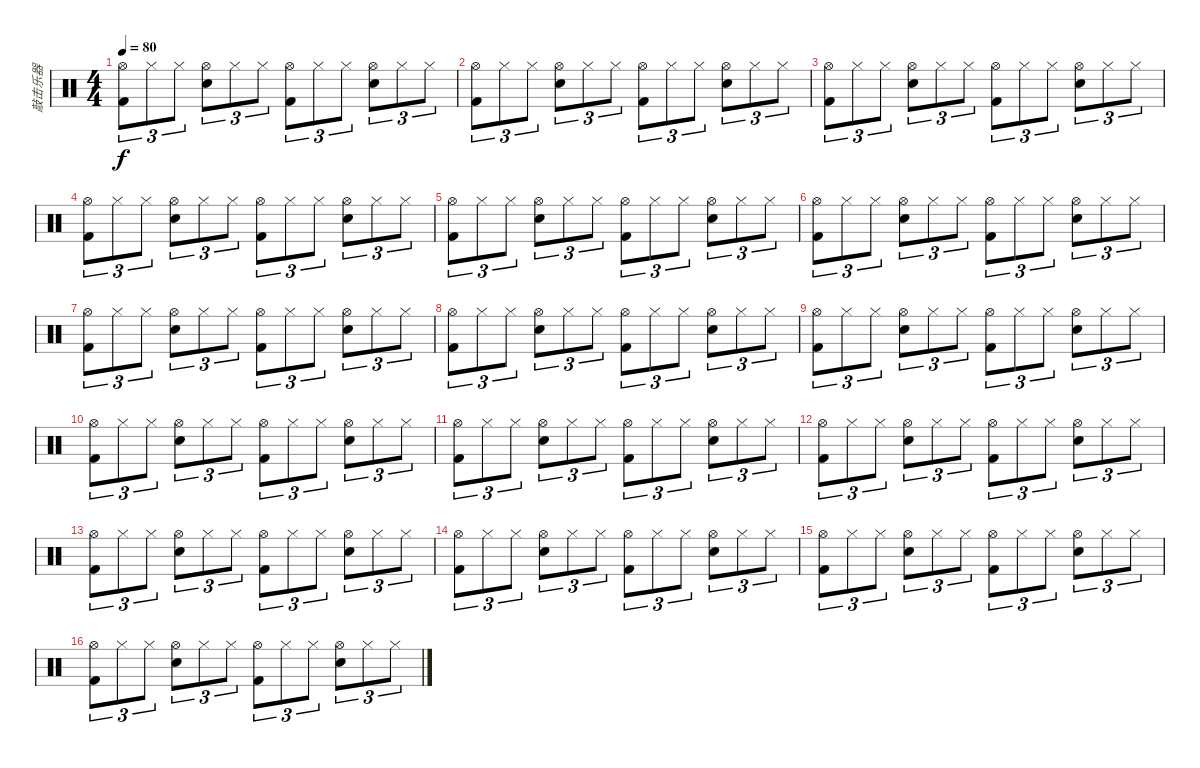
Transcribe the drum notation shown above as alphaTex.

\track ("敲击乐器" "敲击乐器") {instrument percussion}
\staff {score}
\articulation defaults
\ts (4 4)
\tempo 80
\clef neutral
\ks c
("Hi-Hat (open)" "Kick (hit) 2").8{tu (3 2) dy f} "Hi-Hat (closed)".8{tu (3 2)} "Hi-Hat (closed)".8{tu (3 2)} ("Hi-Hat (open)" "Electric Snare (hit)").8{tu (3 2)} "Hi-Hat (closed)".8{tu (3 2)} "Hi-Hat (closed)".8{tu (3 2)} ("Hi-Hat (open)" "Kick (hit) 2").8{tu (3 2)} "Hi-Hat (closed)".8{tu (3 2)} "Hi-Hat (closed)".8{tu (3 2)} ("Hi-Hat (open)" "Electric Snare (hit)").8{tu (3 2)} "Hi-Hat (closed)".8{tu (3 2)} "Hi-Hat (closed)".8{tu (3 2)} |
("Hi-Hat (open)" "Kick (hit) 2").8{tu (3 2)} "Hi-Hat (closed)".8{tu (3 2)} "Hi-Hat (closed)".8{tu (3 2)} ("Hi-Hat (open)" "Electric Snare (hit)").8{tu (3 2)} "Hi-Hat (closed)".8{tu (3 2)} "Hi-Hat (closed)".8{tu (3 2)} ("Hi-Hat (open)" "Kick (hit) 2").8{tu (3 2)} "Hi-Hat (closed)".8{tu (3 2)} "Hi-Hat (closed)".8{tu (3 2)} ("Hi-Hat (open)" "Electric Snare (hit)").8{tu (3 2)} "Hi-Hat (closed)".8{tu (3 2)} "Hi-Hat (closed)".8{tu (3 2)} |
("Hi-Hat (open)" "Kick (hit) 2").8{tu (3 2)} "Hi-Hat (closed)".8{tu (3 2)} "Hi-Hat (closed)".8{tu (3 2)} ("Hi-Hat (open)" "Electric Snare (hit)").8{tu (3 2)} "Hi-Hat (closed)".8{tu (3 2)} "Hi-Hat (closed)".8{tu (3 2)} ("Hi-Hat (open)" "Kick (hit) 2").8{tu (3 2)} "Hi-Hat (closed)".8{tu (3 2)} "Hi-Hat (closed)".8{tu (3 2)} ("Hi-Hat (open)" "Electric Snare (hit)").8{tu (3 2)} "Hi-Hat (closed)".8{tu (3 2)} "Hi-Hat (closed)".8{tu (3 2)} |
("Hi-Hat (open)" "Kick (hit) 2").8{tu (3 2)} "Hi-Hat (closed)".8{tu (3 2)} "Hi-Hat (closed)".8{tu (3 2)} ("Hi-Hat (open)" "Electric Snare (hit)").8{tu (3 2)} "Hi-Hat (closed)".8{tu (3 2)} "Hi-Hat (closed)".8{tu (3 2)} ("Hi-Hat (open)" "Kick (hit) 2").8{tu (3 2)} "Hi-Hat (closed)".8{tu (3 2)} "Hi-Hat (closed)".8{tu (3 2)} ("Hi-Hat (open)" "Electric Snare (hit)").8{tu (3 2)} "Hi-Hat (closed)".8{tu (3 2)} "Hi-Hat (closed)".8{tu (3 2)} |
("Hi-Hat (open)" "Kick (hit) 2").8{tu (3 2)} "Hi-Hat (closed)".8{tu (3 2)} "Hi-Hat (closed)".8{tu (3 2)} ("Hi-Hat (open)" "Electric Snare (hit)").8{tu (3 2)} "Hi-Hat (closed)".8{tu (3 2)} "Hi-Hat (closed)".8{tu (3 2)} ("Hi-Hat (open)" "Kick (hit) 2").8{tu (3 2)} "Hi-Hat (closed)".8{tu (3 2)} "Hi-Hat (closed)".8{tu (3 2)} ("Hi-Hat (open)" "Electric Snare (hit)").8{tu (3 2)} "Hi-Hat (closed)".8{tu (3 2)} "Hi-Hat (closed)".8{tu (3 2)} |
("Hi-Hat (open)" "Kick (hit) 2").8{tu (3 2)} "Hi-Hat (closed)".8{tu (3 2)} "Hi-Hat (closed)".8{tu (3 2)} ("Hi-Hat (open)" "Electric Snare (hit)").8{tu (3 2)} "Hi-Hat (closed)".8{tu (3 2)} "Hi-Hat (closed)".8{tu (3 2)} ("Hi-Hat (open)" "Kick (hit) 2").8{tu (3 2)} "Hi-Hat (closed)".8{tu (3 2)} "Hi-Hat (closed)".8{tu (3 2)} ("Hi-Hat (open)" "Electric Snare (hit)").8{tu (3 2)} "Hi-Hat (closed)".8{tu (3 2)} "Hi-Hat (closed)".8{tu (3 2)} |
("Hi-Hat (open)" "Kick (hit) 2").8{tu (3 2)} "Hi-Hat (closed)".8{tu (3 2)} "Hi-Hat (closed)".8{tu (3 2)} ("Hi-Hat (open)" "Electric Snare (hit)").8{tu (3 2)} "Hi-Hat (closed)".8{tu (3 2)} "Hi-Hat (closed)".8{tu (3 2)} ("Hi-Hat (open)" "Kick (hit) 2").8{tu (3 2)} "Hi-Hat (closed)".8{tu (3 2)} "Hi-Hat (closed)".8{tu (3 2)} ("Hi-Hat (open)" "Electric Snare (hit)").8{tu (3 2)} "Hi-Hat (closed)".8{tu (3 2)} "Hi-Hat (closed)".8{tu (3 2)} |
("Hi-Hat (open)" "Kick (hit) 2").8{tu (3 2)} "Hi-Hat (closed)".8{tu (3 2)} "Hi-Hat (closed)".8{tu (3 2)} ("Hi-Hat (open)" "Electric Snare (hit)").8{tu (3 2)} "Hi-Hat (closed)".8{tu (3 2)} "Hi-Hat (closed)".8{tu (3 2)} ("Hi-Hat (open)" "Kick (hit) 2").8{tu (3 2)} "Hi-Hat (closed)".8{tu (3 2)} "Hi-Hat (closed)".8{tu (3 2)} ("Hi-Hat (open)" "Electric Snare (hit)").8{tu (3 2)} "Hi-Hat (closed)".8{tu (3 2)} "Hi-Hat (closed)".8{tu (3 2)} |
("Hi-Hat (open)" "Kick (hit) 2").8{tu (3 2)} "Hi-Hat (closed)".8{tu (3 2)} "Hi-Hat (closed)".8{tu (3 2)} ("Hi-Hat (open)" "Electric Snare (hit)").8{tu (3 2)} "Hi-Hat (closed)".8{tu (3 2)} "Hi-Hat (closed)".8{tu (3 2)} ("Hi-Hat (open)" "Kick (hit) 2").8{tu (3 2)} "Hi-Hat (closed)".8{tu (3 2)} "Hi-Hat (closed)".8{tu (3 2)} ("Hi-Hat (open)" "Electric Snare (hit)").8{tu (3 2)} "Hi-Hat (closed)".8{tu (3 2)} "Hi-Hat (closed)".8{tu (3 2)} |
("Hi-Hat (open)" "Kick (hit) 2").8{tu (3 2)} "Hi-Hat (closed)".8{tu (3 2)} "Hi-Hat (closed)".8{tu (3 2)} ("Hi-Hat (open)" "Electric Snare (hit)").8{tu (3 2)} "Hi-Hat (closed)".8{tu (3 2)} "Hi-Hat (closed)".8{tu (3 2)} ("Hi-Hat (open)" "Kick (hit) 2").8{tu (3 2)} "Hi-Hat (closed)".8{tu (3 2)} "Hi-Hat (closed)".8{tu (3 2)} ("Hi-Hat (open)" "Electric Snare (hit)").8{tu (3 2)} "Hi-Hat (closed)".8{tu (3 2)} "Hi-Hat (closed)".8{tu (3 2)} |
("Hi-Hat (open)" "Kick (hit) 2").8{tu (3 2)} "Hi-Hat (closed)".8{tu (3 2)} "Hi-Hat (closed)".8{tu (3 2)} ("Hi-Hat (open)" "Electric Snare (hit)").8{tu (3 2)} "Hi-Hat (closed)".8{tu (3 2)} "Hi-Hat (closed)".8{tu (3 2)} ("Hi-Hat (open)" "Kick (hit) 2").8{tu (3 2)} "Hi-Hat (closed)".8{tu (3 2)} "Hi-Hat (closed)".8{tu (3 2)} ("Hi-Hat (open)" "Electric Snare (hit)").8{tu (3 2)} "Hi-Hat (closed)".8{tu (3 2)} "Hi-Hat (closed)".8{tu (3 2)} |
("Hi-Hat (open)" "Kick (hit) 2").8{tu (3 2)} "Hi-Hat (closed)".8{tu (3 2)} "Hi-Hat (closed)".8{tu (3 2)} ("Hi-Hat (open)" "Electric Snare (hit)").8{tu (3 2)} "Hi-Hat (closed)".8{tu (3 2)} "Hi-Hat (closed)".8{tu (3 2)} ("Hi-Hat (open)" "Kick (hit) 2").8{tu (3 2)} "Hi-Hat (closed)".8{tu (3 2)} "Hi-Hat (closed)".8{tu (3 2)} ("Hi-Hat (open)" "Electric Snare (hit)").8{tu (3 2)} "Hi-Hat (closed)".8{tu (3 2)} "Hi-Hat (closed)".8{tu (3 2)} |
("Hi-Hat (open)" "Kick (hit) 2").8{tu (3 2)} "Hi-Hat (closed)".8{tu (3 2)} "Hi-Hat (closed)".8{tu (3 2)} ("Hi-Hat (open)" "Electric Snare (hit)").8{tu (3 2)} "Hi-Hat (closed)".8{tu (3 2)} "Hi-Hat (closed)".8{tu (3 2)} ("Hi-Hat (open)" "Kick (hit) 2").8{tu (3 2)} "Hi-Hat (closed)".8{tu (3 2)} "Hi-Hat (closed)".8{tu (3 2)} ("Hi-Hat (open)" "Electric Snare (hit)").8{tu (3 2)} "Hi-Hat (closed)".8{tu (3 2)} "Hi-Hat (closed)".8{tu (3 2)} |
("Hi-Hat (open)" "Kick (hit) 2").8{tu (3 2)} "Hi-Hat (closed)".8{tu (3 2)} "Hi-Hat (closed)".8{tu (3 2)} ("Hi-Hat (open)" "Electric Snare (hit)").8{tu (3 2)} "Hi-Hat (closed)".8{tu (3 2)} "Hi-Hat (closed)".8{tu (3 2)} ("Hi-Hat (open)" "Kick (hit) 2").8{tu (3 2)} "Hi-Hat (closed)".8{tu (3 2)} "Hi-Hat (closed)".8{tu (3 2)} ("Hi-Hat (open)" "Electric Snare (hit)").8{tu (3 2)} "Hi-Hat (closed)".8{tu (3 2)} "Hi-Hat (closed)".8{tu (3 2)} |
("Hi-Hat (open)" "Kick (hit) 2").8{tu (3 2)} "Hi-Hat (closed)".8{tu (3 2)} "Hi-Hat (closed)".8{tu (3 2)} ("Hi-Hat (open)" "Electric Snare (hit)").8{tu (3 2)} "Hi-Hat (closed)".8{tu (3 2)} "Hi-Hat (closed)".8{tu (3 2)} ("Hi-Hat (open)" "Kick (hit) 2").8{tu (3 2)} "Hi-Hat (closed)".8{tu (3 2)} "Hi-Hat (closed)".8{tu (3 2)} ("Hi-Hat (open)" "Electric Snare (hit)").8{tu (3 2)} "Hi-Hat (closed)".8{tu (3 2)} "Hi-Hat (closed)".8{tu (3 2)} |
("Hi-Hat (open)" "Kick (hit) 2").8{tu (3 2)} "Hi-Hat (closed)".8{tu (3 2)} "Hi-Hat (closed)".8{tu (3 2)} ("Hi-Hat (open)" "Electric Snare (hit)").8{tu (3 2)} "Hi-Hat (closed)".8{tu (3 2)} "Hi-Hat (closed)".8{tu (3 2)} ("Hi-Hat (open)" "Kick (hit) 2").8{tu (3 2)} "Hi-Hat (closed)".8{tu (3 2)} "Hi-Hat (closed)".8{tu (3 2)} ("Hi-Hat (open)" "Electric Snare (hit)").8{tu (3 2)} "Hi-Hat (closed)".8{tu (3 2)} "Hi-Hat (closed)".8{tu (3 2)}
